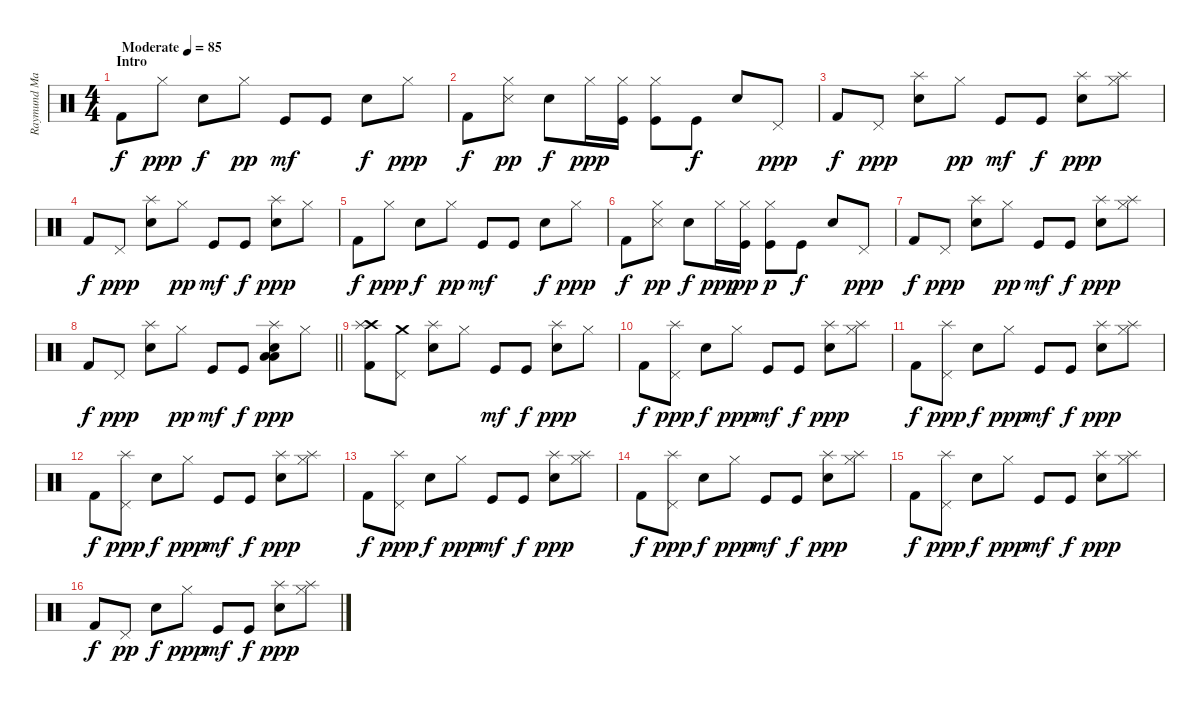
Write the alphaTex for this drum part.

\track ("Raymund Marasigan - Drums" "Raymund Ma") {instrument percussion}
\staff {score}
\articulation defaults
\ts (4 4)
\section ("" "Intro")
\tempo (85 "Moderate")
\clef neutral
\ks c "Kick (hit) 2".8{dy f} "Hi-Hat (closed)".8{dy ppp} "Electric Snare (hit)".8{dy f} "Hi-Hat (closed)".8{dy pp} "Kick (hit)".8{dy mf} "Kick (hit)".8 "Electric Snare (hit)".8{dy f} "Hi-Hat (closed)".8{dy ppp}
|
"Kick (hit) 2".8{dy f} ("Hi-Hat (closed)" "Snare (side stick) 3").8{dy pp} "Electric Snare (hit)".8{dy f} "Hi-Hat (closed)".16{dy ppp} ("Kick (hit)" "Hi-Hat (closed)").16 ("Kick (hit)" "Hi-Hat (closed)").8 "Kick (hit)".8{dy f} "Electric Snare (hit)".8 "Pedal Hi-Hat (hit)".8{dy ppp} |
"Kick (hit) 2".8{dy f} "Pedal Hi-Hat (hit)".8{dy ppp} ("Splash (hit)" "Electric Snare (hit)").8 "Hi-Hat (closed)".8{dy pp} "Kick (hit)".8{dy mf} "Kick (hit)".8{dy f} ("Splash (hit)" "Electric Snare (hit)").8{dy ppp} ("Hi-Hat (closed)" "Splash (hit)").8 |
"Kick (hit) 2".8{dy f} "Pedal Hi-Hat (hit)".8{dy ppp} ("Splash (hit)" "Electric Snare (hit)").8 "Hi-Hat (closed)".8{dy pp} "Kick (hit)".8{dy mf} "Kick (hit)".8{dy f} ("Splash (hit)" "Electric Snare (hit)").8{dy ppp} "Hi-Hat (closed)".8 |
"Kick (hit) 2".8{dy f} "Hi-Hat (closed)".8{dy ppp} "Electric Snare (hit)".8{dy f} "Hi-Hat (closed)".8{dy pp} "Kick (hit)".8{dy mf} "Kick (hit)".8 "Electric Snare (hit)".8{dy f} "Hi-Hat (closed)".8{dy ppp} |
"Kick (hit) 2".8{dy f} ("Hi-Hat (closed)" "Snare (side stick) 3").8{dy pp} "Electric Snare (hit)".8{dy f} "Hi-Hat (closed)".16{dy ppp} ("Hi-Hat (closed)" "Kick (hit)").16{dy pp} ("Hi-Hat (closed)" "Kick (hit)").8{dy p} "Kick (hit)".8{dy f} "Electric Snare (hit)".8 "Pedal Hi-Hat (hit)".8{dy ppp} |
"Kick (hit) 2".8{dy f} "Pedal Hi-Hat (hit)".8{dy ppp} ("Splash (hit)" "Electric Snare (hit)").8 "Hi-Hat (closed)".8{dy pp} "Kick (hit)".8{dy mf} "Kick (hit)".8{dy f} ("Splash (hit)" "Electric Snare (hit)").8{dy ppp} ("Hi-Hat (closed)" "Splash (hit)").8 |
\barLineRight lightlight "Kick (hit) 2".8{dy f} "Pedal Hi-Hat (hit)".8{dy ppp}
("Splash (hit)" "Electric Snare (hit)").8 "Hi-Hat (closed)".8{dy pp} "Kick (hit)".8{dy mf} "Kick (hit)".8{dy f} ("Splash (hit)" "Low Tom (hit)" "Low Floor Tom (hit)" "Electric Snare (hit)").8{dy ppp} "Hi-Hat (closed)".8 |
\section ("" "")
("Kick (hit) 2" "Crash high (hit)" "Splash (hit)").8 ("Pedal Hi-Hat (hit)" "Crash medium (hit)").8 ("Splash (hit)" "Electric Snare (hit)").8 "Hi-Hat (closed)".8 "Kick (hit)".8{dy mf} "Kick (hit)".8{dy f} ("Splash (hit)" "Electric Snare (hit)").8{dy ppp} "Hi-Hat (closed)".8 |
"Kick (hit) 2".8{dy f} ("Pedal Hi-Hat (hit)" "Splash (hit)").8{dy ppp} "Electric Snare (hit)".8{dy f} "Hi-Hat (closed)".8{dy ppp} "Kick (hit)".8{dy mf} "Kick (hit)".8{dy f} ("Splash (hit)" "Electric Snare (hit)").8{dy ppp} ("Hi-Hat (closed)" "Splash (hit)").8 |
"Kick (hit) 2".8{dy f} ("Pedal Hi-Hat (hit)" "Splash (hit)").8{dy ppp} "Electric Snare (hit)".8{dy f} "Hi-Hat (closed)".8{dy ppp} "Kick (hit)".8{dy mf} "Kick (hit)".8{dy f} ("Splash (hit)" "Electric Snare (hit)").8{dy ppp} ("Hi-Hat (closed)" "Splash (hit)").8 |
"Kick (hit) 2".8{dy f} ("Pedal Hi-Hat (hit)" "Splash (hit)").8{dy ppp} "Electric Snare (hit)".8{dy f} "Hi-Hat (closed)".8{dy ppp} "Kick (hit)".8{dy mf} "Kick (hit)".8{dy f} ("Splash (hit)" "Electric Snare (hit)").8{dy ppp} ("Hi-Hat (closed)" "Splash (hit)").8 |
"Kick (hit) 2".8{dy f} ("Pedal Hi-Hat (hit)" "Splash (hit)").8{dy ppp} "Electric Snare (hit)".8{dy f} "Hi-Hat (closed)".8{dy ppp} "Kick (hit)".8{dy mf} "Kick (hit)".8{dy f} ("Splash (hit)" "Electric Snare (hit)").8{dy ppp} ("Hi-Hat (closed)" "Splash (hit)").8 |
"Kick (hit) 2".8{dy f} ("Pedal Hi-Hat (hit)" "Splash (hit)").8{dy ppp} "Electric Snare (hit)".8{dy f} "Hi-Hat (closed)".8{dy ppp} "Kick (hit)".8{dy mf} "Kick (hit)".8{dy f} ("Splash (hit)" "Electric Snare (hit)").8{dy ppp} ("Hi-Hat (closed)" "Splash (hit)").8 |
"Kick (hit) 2".8{dy f} ("Pedal Hi-Hat (hit)" "Splash (hit)").8{dy ppp} "Electric Snare (hit)".8{dy f} "Hi-Hat (closed)".8{dy ppp} "Kick (hit)".8{dy mf} "Kick (hit)".8{dy f} ("Splash (hit)" "Electric Snare (hit)").8{dy ppp} ("Hi-Hat (closed)" "Splash (hit)").8 |
"Kick (hit) 2".8{dy f} "Pedal Hi-Hat (hit)".8{dy pp} "Electric Snare (hit)".8{dy f} "Hi-Hat (closed)".8{dy ppp} "Kick (hit)".8{dy mf} "Kick (hit)".8{dy f} ("Splash (hit)" "Electric Snare (hit)").8{dy ppp} ("Hi-Hat (closed)" "Splash (hit)").8
